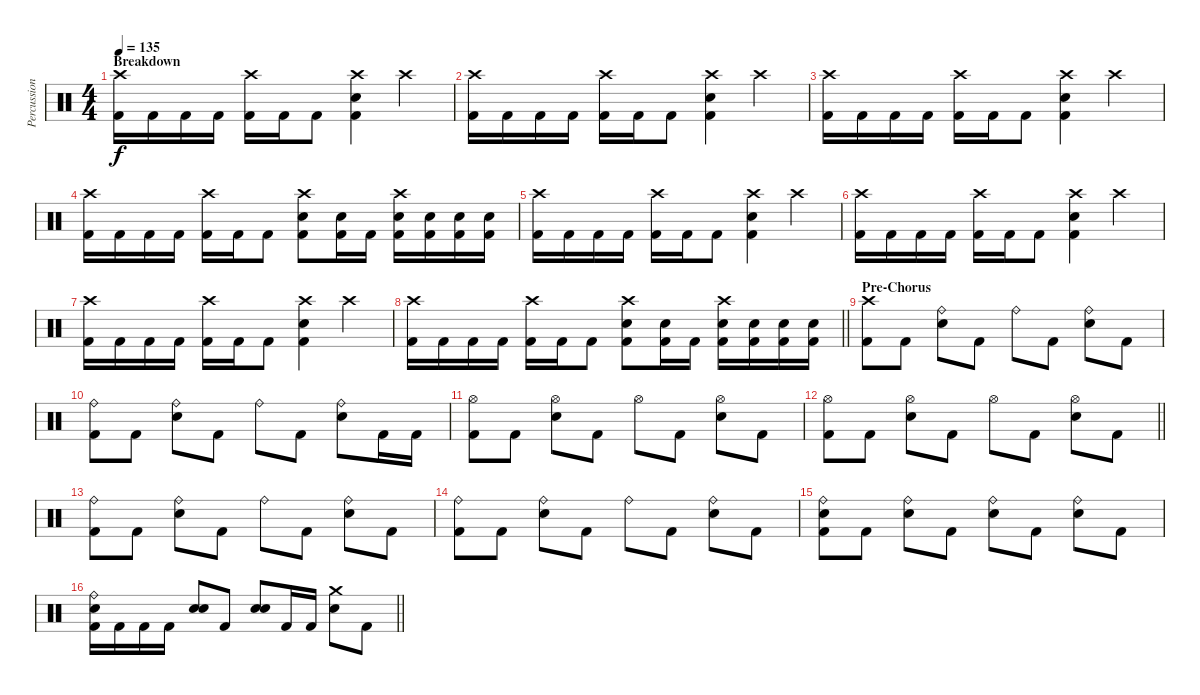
\track ("Percussion" "Percussion") {instrument percussion}
\staff {score}
\articulation defaults
\ts (4 4)
\section ("" "Breakdown")
\tempo 135
\clef neutral
\ks c
("Crash high (hit)" "Kick (hit) 2").16{dy f} "Kick (hit) 2".16 "Kick (hit) 2".16 "Kick (hit) 2".16 ("Crash high (hit)" "Kick (hit) 2").16 "Kick (hit) 2".16 "Kick (hit) 2".8 ("Crash high (hit)" "Electric Snare (hit)" "Kick (hit) 2").4 "Crash high (hit)".4 |
("Crash high (hit)" "Kick (hit) 2").16 "Kick (hit) 2".16 "Kick (hit) 2".16 "Kick (hit) 2".16 ("Crash high (hit)" "Kick (hit) 2").16 "Kick (hit) 2".16 "Kick (hit) 2".8 ("Crash high (hit)" "Electric Snare (hit)" "Kick (hit) 2").4 "Crash high (hit)".4 |
("Crash high (hit)" "Kick (hit) 2").16 "Kick (hit) 2".16 "Kick (hit) 2".16 "Kick (hit) 2".16 ("Crash high (hit)" "Kick (hit) 2").16 "Kick (hit) 2".16 "Kick (hit) 2".8 ("Crash high (hit)" "Electric Snare (hit)" "Kick (hit) 2").4 "Crash high (hit)".4 |
("Crash high (hit)" "Kick (hit) 2").16 "Kick (hit) 2".16 "Kick (hit) 2".16 "Kick (hit) 2".16 ("Crash high (hit)" "Kick (hit) 2").16 "Kick (hit) 2".16 "Kick (hit) 2".8 ("Crash high (hit)" "Electric Snare (hit)" "Kick (hit) 2").8 ("Electric Snare (hit)" "Kick (hit) 2").16 "Kick (hit) 2".16 ("Crash high (hit)" "Electric Snare (hit)" "Kick (hit) 2").16 ("Electric Snare (hit)" "Kick (hit) 2").16 ("Electric Snare (hit)" "Kick (hit) 2").16 ("Electric Snare (hit)" "Kick (hit) 2").16 |
("Crash high (hit)" "Kick (hit) 2").16 "Kick (hit) 2".16 "Kick (hit) 2".16 "Kick (hit) 2".16 ("Crash high (hit)" "Kick (hit) 2").16 "Kick (hit) 2".16 "Kick (hit) 2".8 ("Crash high (hit)" "Electric Snare (hit)" "Kick (hit) 2").4 "Crash high (hit)".4 |
("Crash high (hit)" "Kick (hit) 2").16 "Kick (hit) 2".16 "Kick (hit) 2".16 "Kick (hit) 2".16 ("Crash high (hit)" "Kick (hit) 2").16 "Kick (hit) 2".16 "Kick (hit) 2".8 ("Crash high (hit)" "Electric Snare (hit)" "Kick (hit) 2").4 "Crash high (hit)".4 |
("Crash high (hit)" "Kick (hit) 2").16 "Kick (hit) 2".16 "Kick (hit) 2".16 "Kick (hit) 2".16 ("Crash high (hit)" "Kick (hit) 2").16 "Kick (hit) 2".16 "Kick (hit) 2".8 ("Crash high (hit)" "Electric Snare (hit)" "Kick (hit) 2").4 "Crash high (hit)".4 |
\barLineRight lightlight
("Crash high (hit)" "Kick (hit) 2").16 "Kick (hit) 2".16 "Kick (hit) 2".16 "Kick (hit) 2".16 ("Crash high (hit)" "Kick (hit) 2").16 "Kick (hit) 2".16 "Kick (hit) 2".8 ("Crash high (hit)" "Electric Snare (hit)" "Kick (hit) 2").8 ("Electric Snare (hit)" "Kick (hit) 2").16 "Kick (hit) 2".16 ("Crash high (hit)" "Electric Snare (hit)" "Kick (hit) 2").16 ("Electric Snare (hit)" "Kick (hit) 2").16 ("Electric Snare (hit)" "Kick (hit) 2").16 ("Electric Snare (hit)" "Kick (hit) 2").16 |
\section ("" "Pre-Chorus")
("Crash high (hit)" "Kick (hit) 2").8 "Kick (hit) 2".8 ("Ride (bell)" "Electric Snare (hit)").8 "Kick (hit) 2".8 "Ride (bell)".8 "Kick (hit) 2".8 ("Ride (bell)" "Electric Snare (hit)").8 "Kick (hit) 2".8 |
("Ride (bell)" "Kick (hit) 2").8 "Kick (hit) 2".8 ("Ride (bell)" "Electric Snare (hit)").8 "Kick (hit) 2".8 "Ride (bell)".8 "Kick (hit) 2".8 ("Ride (bell)" "Electric Snare (hit)").8 "Kick (hit) 2".16 "Kick (hit) 2".16 |
("Hi-Hat (open)" "Kick (hit) 2").8 "Kick (hit) 2".8 ("Hi-Hat (open)" "Electric Snare (hit)").8 "Kick (hit) 2".8 "Hi-Hat (open)".8 "Kick (hit) 2".8 ("Hi-Hat (open)" "Electric Snare (hit)").8 "Kick (hit) 2".8 |
\barLineRight lightlight
("Hi-Hat (open)" "Kick (hit) 2").8 "Kick (hit) 2".8 ("Hi-Hat (open)" "Electric Snare (hit)").8 "Kick (hit) 2".8 "Hi-Hat (open)".8 "Kick (hit) 2".8 ("Hi-Hat (open)" "Electric Snare (hit)").8 "Kick (hit) 2".8 |
("Ride (bell)" "Kick (hit) 2").8 "Kick (hit) 2".8 ("Ride (bell)" "Electric Snare (hit)").8 "Kick (hit) 2".8 "Ride (bell)".8 "Kick (hit) 2".8 ("Ride (bell)" "Electric Snare (hit)").8 "Kick (hit) 2".8 |
("Ride (bell)" "Kick (hit) 2").8 "Kick (hit) 2".8 ("Ride (bell)" "Electric Snare (hit)").8 "Kick (hit) 2".8 "Ride (bell)".8 "Kick (hit) 2".8 ("Ride (bell)" "Electric Snare (hit)").8 "Kick (hit) 2".8 |
("Ride (bell)" "Electric Snare (hit)" "Kick (hit) 2").8 "Kick (hit) 2".8 ("Ride (bell)" "Electric Snare (hit)").8 "Kick (hit) 2".8 ("Ride (bell)" "Electric Snare (hit)").8 "Kick (hit) 2".8 ("Ride (bell)" "Electric Snare (hit)").8 "Kick (hit) 2".8 |
\barLineRight lightlight
("Ride (bell)" "Electric Snare (hit)" "Kick (hit) 2").16 "Kick (hit) 2".16 "Kick (hit) 2".16 "Kick (hit) 2".16 ("Electric Snare (hit)" "Electric Snare (hit)").8 "Kick (hit) 2".8 ("Electric Snare (hit)" "Electric Snare (hit)").8 "Kick (hit) 2".16 "Kick (hit) 2".16 ("Crash medium (hit)" "Electric Snare (hit)").8 "Kick (hit) 2".8
